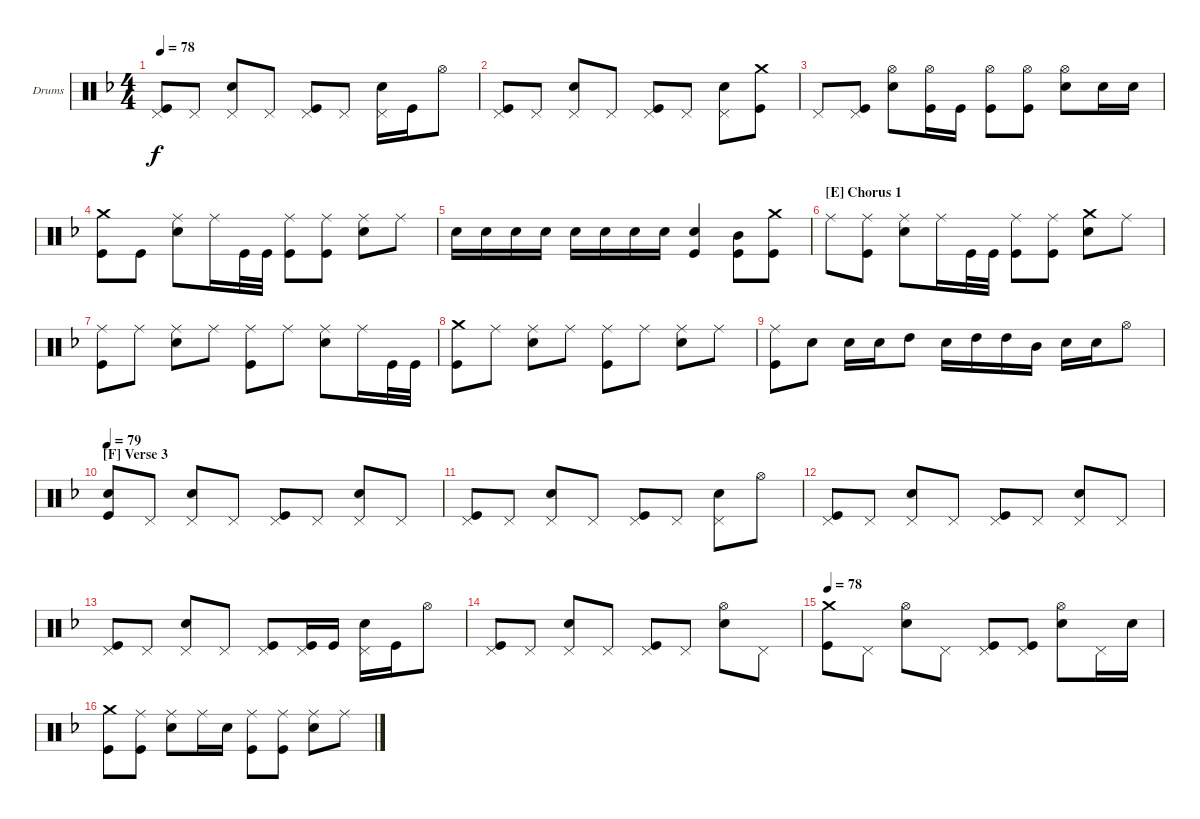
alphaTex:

\bracketExtendMode groupsimilarinstruments
\firstSystemTrackNameOrientation horizontal
\otherSystemsTrackNameOrientation horizontal
\track ("Vinny Appice" "Drums") {instrument percussion}
\staff {score}
\articulation defaults
\ts (4 4)
\tempo 78
\clef neutral
\ks dminor
("Pedal Hi-Hat (hit)" "Kick (hit)").8{dy f} "Pedal Hi-Hat (hit)".8 ("Pedal Hi-Hat (hit)" "Snare (hit) 2").8 "Pedal Hi-Hat (hit)".8 ("Pedal Hi-Hat (hit)" "Kick (hit)").8 "Pedal Hi-Hat (hit)".8 ("Pedal Hi-Hat (hit)" "Snare (hit) 2").16 "Kick (hit)".16 "Hi-Hat (open)".8 |
("Pedal Hi-Hat (hit)" "Kick (hit)").8 "Pedal Hi-Hat (hit)".8 ("Pedal Hi-Hat (hit)" "Snare (hit) 2").8 "Pedal Hi-Hat (hit)".8 ("Pedal Hi-Hat (hit)" "Kick (hit)").8 "Pedal Hi-Hat (hit)".8 ("Pedal Hi-Hat (hit)" "Snare (hit) 2").8 ("Crash medium (hit)" "Kick (hit)").8 |
"Pedal Hi-Hat (hit)".8 ("Pedal Hi-Hat (hit)" "Kick (hit)").8 ("Hi-Hat (open)" "Snare (hit) 2").8 ("Hi-Hat (open)" "Kick (hit)").16 "Kick (hit)".16 ("Hi-Hat (open)" "Kick (hit)").8 ("Hi-Hat (open)" "Kick (hit)").8 ("Hi-Hat (open)" "Snare (hit) 2").8 "Snare (hit) 2".16 "Snare (hit) 2".16 |
("Crash medium (hit)" "Kick (hit)").8 "Kick (hit)".8 ("Ride (middle)" "Snare (hit) 2").8 "Ride (middle)".16 "Kick (hit)".32 "Kick (hit)".32 ("Ride (middle)" "Kick (hit)").8 ("Ride (middle)" "Kick (hit)").8 ("Ride (middle)" "Snare (hit) 2").8 "Ride (middle)".8 |
"Snare (hit) 2".16 "Snare (hit) 2".16 "Snare (hit) 2".16 "Snare (hit) 2".16 "Snare (hit) 2".16 "Snare (hit) 2".16 "Snare (hit) 2".16 "Snare (hit) 2".16 ("Kick (hit)" "Snare (hit) 2").4 ("Kick (hit)" "Mid Tom (hit)").8 ("Kick (hit)" "Crash medium (hit)").8 |
\section ("E" "Chorus 1")
"Ride (middle)".8 ("Ride (middle)" "Kick (hit)").8 ("Ride (middle)" "Snare (hit) 2").8 "Ride (middle)".16 "Kick (hit)".32 "Kick (hit)".32 ("Ride (middle)" "Kick (hit)").8 ("Ride (middle)" "Kick (hit)").8 ("Crash medium (hit)" "Snare (hit) 2").8 "Ride (middle)".8 |
("Ride (middle)" "Kick (hit)").8 "Ride (middle)".8 ("Ride (middle)" "Snare (hit) 2").8 "Ride (middle)".8 ("Ride (middle)" "Kick (hit)").8 "Ride (middle)".8 ("Ride (middle)" "Snare (hit) 2").8 "Ride (middle)".16 "Kick (hit)".32 "Kick (hit)".32 |
("Crash medium (hit)" "Kick (hit)").8 "Ride (middle)".8 ("Ride (middle)" "Snare (hit) 2").8 "Ride (middle)".8 ("Ride (middle)" "Kick (hit)").8 "Ride (middle)".8 ("Ride (middle)" "Snare (hit) 2").8 "Ride (middle)".8 |
("Ride (middle)" "Kick (hit)").8 "Snare (hit) 2".8 "Snare (hit) 2".16 "Snare (hit) 2".16 "High Tom (hit)".8 "Snare (hit) 2".16 "High Tom (hit)".16 "High Tom (hit)".16 "Mid Tom (hit)".16 "Snare (hit) 2".16 "Snare (hit) 2".16 "Hi-Hat (open)".8 |
\section ("F" "Verse 3")
\tempo 79
("Snare (hit) 2" "Kick (hit)").8 "Pedal Hi-Hat (hit)".8 ("Pedal Hi-Hat (hit)" "Snare (hit) 2").8 "Pedal Hi-Hat (hit)".8 ("Pedal Hi-Hat (hit)" "Kick (hit)").8 "Pedal Hi-Hat (hit)".8 ("Pedal Hi-Hat (hit)" "Snare (hit) 2").8 "Pedal Hi-Hat (hit)".8 |
("Pedal Hi-Hat (hit)" "Kick (hit)").8 "Pedal Hi-Hat (hit)".8 ("Pedal Hi-Hat (hit)" "Snare (hit) 2").8 "Pedal Hi-Hat (hit)".8 ("Pedal Hi-Hat (hit)" "Kick (hit)").8 "Pedal Hi-Hat (hit)".8 ("Pedal Hi-Hat (hit)" "Snare (hit) 2").8 "Hi-Hat (open)".8 |
("Pedal Hi-Hat (hit)" "Kick (hit)").8 "Pedal Hi-Hat (hit)".8 ("Pedal Hi-Hat (hit)" "Snare (hit) 2").8 "Pedal Hi-Hat (hit)".8 ("Pedal Hi-Hat (hit)" "Kick (hit)").8 "Pedal Hi-Hat (hit)".8 ("Pedal Hi-Hat (hit)" "Snare (hit) 2").8 "Pedal Hi-Hat (hit)".8 |
("Pedal Hi-Hat (hit)" "Kick (hit)").8 "Pedal Hi-Hat (hit)".8 ("Pedal Hi-Hat (hit)" "Snare (hit) 2").8 "Pedal Hi-Hat (hit)".8 ("Pedal Hi-Hat (hit)" "Kick (hit)").8 ("Pedal Hi-Hat (hit)" "Kick (hit)").16 "Kick (hit)".16 ("Pedal Hi-Hat (hit)" "Snare (hit) 2").16 "Kick (hit)".16 "Hi-Hat (open)".8 |
("Pedal Hi-Hat (hit)" "Kick (hit)").8 "Pedal Hi-Hat (hit)".8 ("Pedal Hi-Hat (hit)" "Snare (hit) 2").8 "Pedal Hi-Hat (hit)".8 ("Pedal Hi-Hat (hit)" "Kick (hit)").8 "Pedal Hi-Hat (hit)".8 ("Hi-Hat (open)" "Snare (hit) 2").8 "Pedal Hi-Hat (hit)".8 |
\tempo 78
("Crash medium (hit)" "Kick (hit)").8 "Pedal Hi-Hat (hit)".8 ("Hi-Hat (open)" "Snare (hit) 2").8 "Pedal Hi-Hat (hit)".8 ("Pedal Hi-Hat (hit)" "Kick (hit)").8 ("Pedal Hi-Hat (hit)" "Kick (hit)").8 ("Hi-Hat (open)" "Snare (hit) 2").8 "Pedal Hi-Hat (hit)".16 "Snare (hit) 2".16 |
("Crash medium (hit)" "Kick (hit)").8 ("Ride (middle)" "Kick (hit)").8 ("Ride (middle)" "Snare (hit) 2").8 "Ride (middle)".16 "Snare (hit) 2".16 ("Ride (middle)" "Kick (hit)").8 ("Ride (middle)" "Kick (hit)").8 ("Ride (middle)" "Snare (hit) 2").8 "Ride (middle)".8
